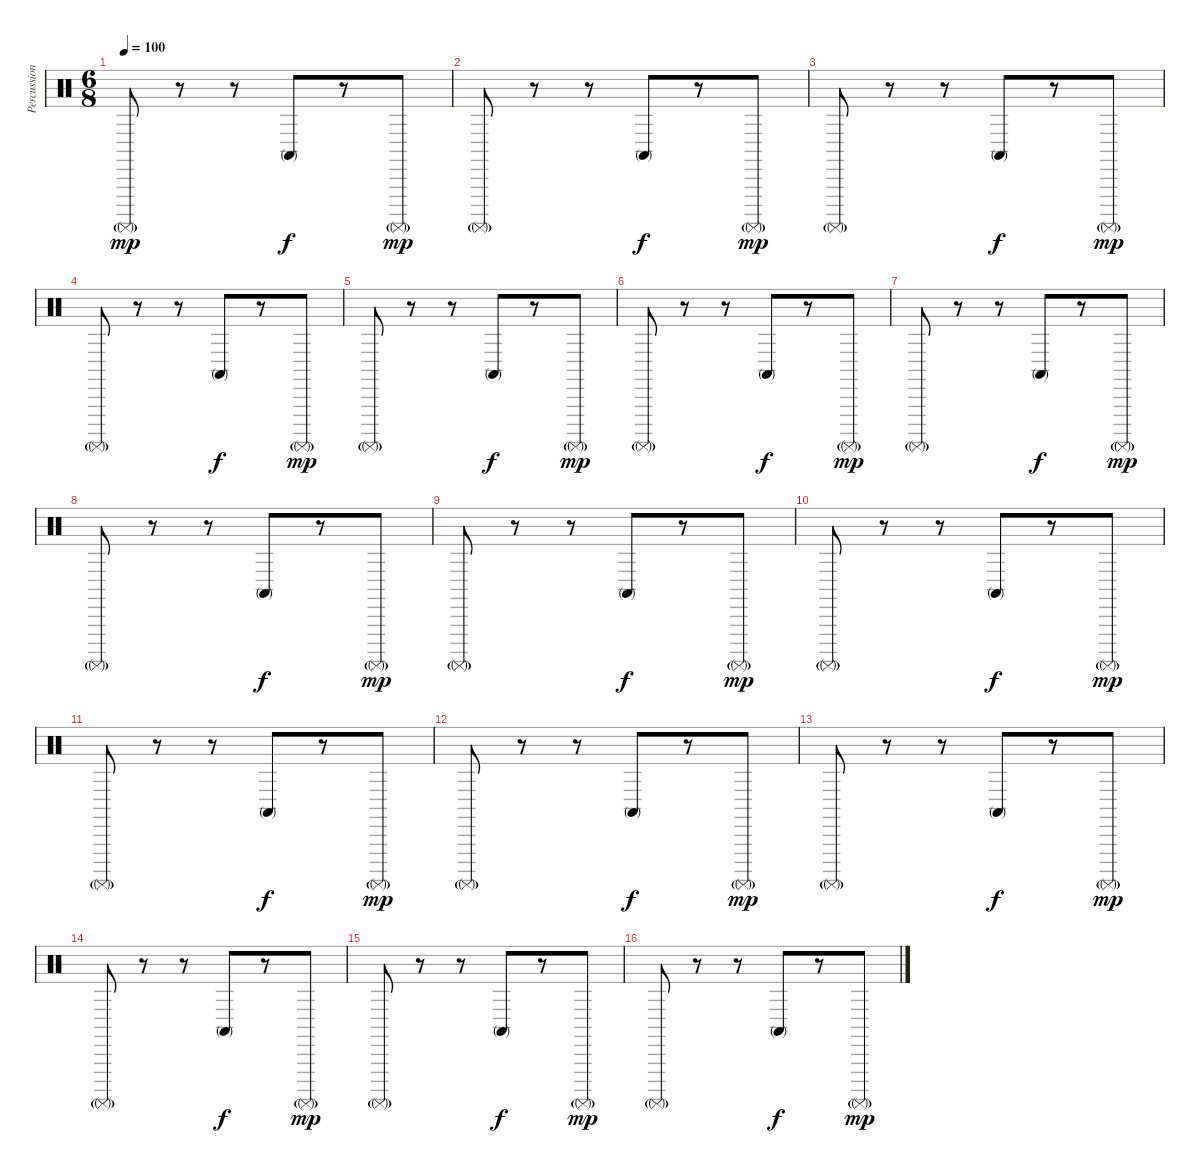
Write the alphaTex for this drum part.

\track ("Percussion" "Percussion") {instrument percussion}
\staff {score}
\articulation defaults
\ts (6 8)
\tempo 100
\clef neutral
\ks c "Surdo (mute)"{g}.8{dy mp}
r.8 r.8 "Conga high (mute)".8{dy f} r.8 "Surdo (mute)"{g}.8{dy mp} |
"Surdo (mute)"{g}.8 r.8 r.8 "Conga high (mute)".8{dy f} r.8 "Surdo (mute)"{g}.8{dy mp} |
"Surdo (mute)"{g}.8 r.8 r.8 "Conga high (mute)".8{dy f} r.8 "Surdo (mute)"{g}.8{dy mp} |
"Surdo (mute)"{g}.8 r.8 r.8 "Conga high (mute)".8{dy f} r.8 "Surdo (mute)"{g}.8{dy mp} |
"Surdo (mute)"{g}.8 r.8 r.8 "Conga high (mute)".8{dy f} r.8 "Surdo (mute)"{g}.8{dy mp} |
"Surdo (mute)"{g}.8 r.8 r.8 "Conga high (mute)".8{dy f} r.8 "Surdo (mute)"{g}.8{dy mp} |
"Surdo (mute)"{g}.8 r.8 r.8 "Conga high (mute)".8{dy f} r.8 "Surdo (mute)"{g}.8{dy mp} |
"Surdo (mute)"{g}.8 r.8 r.8 "Conga high (mute)".8{dy f} r.8 "Surdo (mute)"{g}.8{dy mp} |
"Surdo (mute)"{g}.8 r.8 r.8 "Conga high (mute)".8{dy f} r.8 "Surdo (mute)"{g}.8{dy mp} |
"Surdo (mute)"{g}.8 r.8 r.8 "Conga high (mute)".8{dy f} r.8 "Surdo (mute)"{g}.8{dy mp} |
"Surdo (mute)"{g}.8 r.8 r.8 "Conga high (mute)".8{dy f} r.8 "Surdo (mute)"{g}.8{dy mp} |
"Surdo (mute)"{g}.8 r.8 r.8 "Conga high (mute)".8{dy f} r.8 "Surdo (mute)"{g}.8{dy mp} |
"Surdo (mute)"{g}.8 r.8 r.8 "Conga high (mute)".8{dy f} r.8 "Surdo (mute)"{g}.8{dy mp} |
"Surdo (mute)"{g}.8 r.8 r.8 "Conga high (mute)".8{dy f} r.8 "Surdo (mute)"{g}.8{dy mp} |
"Surdo (mute)"{g}.8 r.8 r.8 "Conga high (mute)".8{dy f} r.8 "Surdo (mute)"{g}.8{dy mp} |
"Surdo (mute)"{g}.8 r.8 r.8 "Conga high (mute)".8{dy f} r.8 "Surdo (mute)"{g}.8{dy mp}
